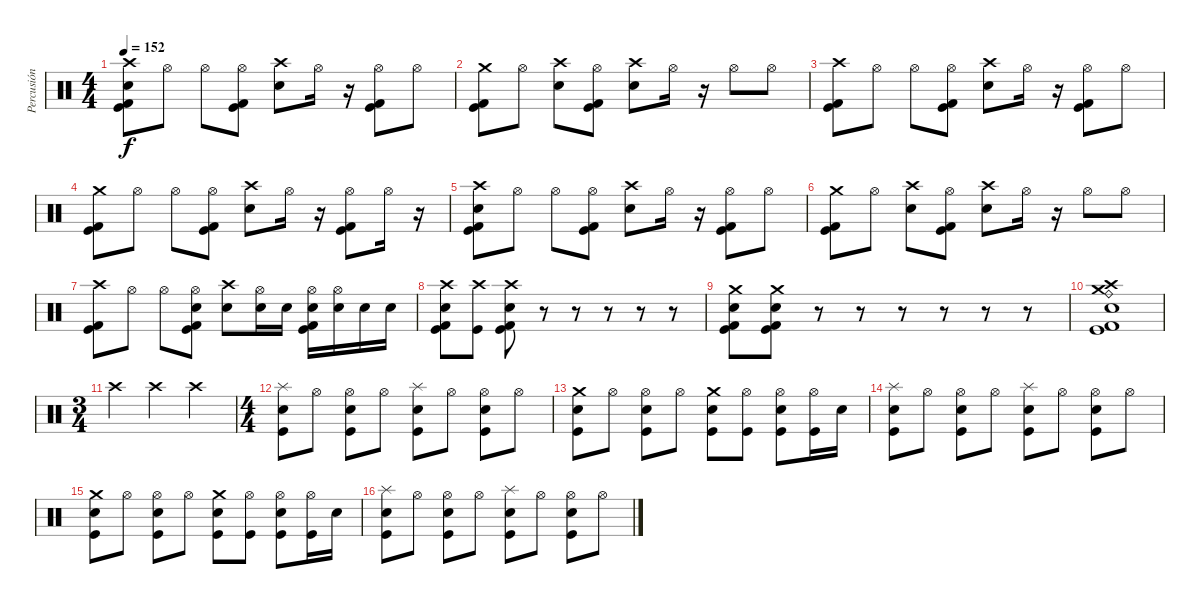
\track ("Percusión" "Percusión") {instrument percussion}
\staff {score}
\articulation defaults
\ts (4 4)
\tempo 152
\clef neutral
\ks c
("Crash high (hit)" "Electric Snare (hit)" "Kick (hit) 2" "Kick (hit)").8{dy f} "Hi-Hat (open)".8 "Hi-Hat (open)".8 ("Hi-Hat (open)" "Kick (hit) 2" "Kick (hit)").8 ("Crash high (hit)" "Electric Snare (hit)").8 "Hi-Hat (open)".16 r.16 ("Hi-Hat (open)" "Kick (hit) 2" "Kick (hit)").8 "Hi-Hat (open)".8 |
("Crash medium (hit)" "Kick (hit) 2" "Kick (hit)").8 "Hi-Hat (open)".8 ("Crash high (hit)" "Electric Snare (hit)").8 ("Hi-Hat (open)" "Kick (hit) 2" "Kick (hit)").8 ("Crash high (hit)" "Electric Snare (hit)").8 "Hi-Hat (open)".16 r.16 "Hi-Hat (open)".8 "Hi-Hat (open)".8 |
("Crash high (hit)" "Kick (hit) 2" "Kick (hit)").8 "Hi-Hat (open)".8 "Hi-Hat (open)".8 ("Hi-Hat (open)" "Kick (hit) 2" "Kick (hit)").8 ("Crash high (hit)" "Electric Snare (hit)").8 "Hi-Hat (open)".16 r.16 ("Hi-Hat (open)" "Kick (hit) 2" "Kick (hit)").8 "Hi-Hat (open)".8 |
("Crash medium (hit)" "Kick (hit) 2" "Kick (hit)").8 "Hi-Hat (open)".8 "Hi-Hat (open)".8 ("Hi-Hat (open)" "Kick (hit) 2" "Kick (hit)").8 ("Crash high (hit)" "Electric Snare (hit)").8 "Hi-Hat (open)".16 r.16 ("Hi-Hat (open)" "Kick (hit) 2" "Kick (hit)").8 "Hi-Hat (open)".16 r.16 |
("Crash high (hit)" "Electric Snare (hit)" "Kick (hit) 2" "Kick (hit)").8 "Hi-Hat (open)".8 "Hi-Hat (open)".8 ("Hi-Hat (open)" "Kick (hit) 2" "Kick (hit)").8 ("Crash high (hit)" "Electric Snare (hit)").8 "Hi-Hat (open)".16 r.16 ("Hi-Hat (open)" "Kick (hit) 2" "Kick (hit)").8 "Hi-Hat (open)".8 |
("Crash medium (hit)" "Kick (hit) 2" "Kick (hit)").8 "Hi-Hat (open)".8 ("Crash high (hit)" "Electric Snare (hit)").8 ("Hi-Hat (open)" "Kick (hit) 2" "Kick (hit)").8 ("Crash high (hit)" "Electric Snare (hit)").8 "Hi-Hat (open)".16 r.16 "Hi-Hat (open)".8 "Hi-Hat (open)".8 |
("Crash high (hit)" "Kick (hit) 2" "Kick (hit)").8 "Hi-Hat (open)".8 "Hi-Hat (open)".8 ("Hi-Hat (open)" "Electric Snare (hit)" "Kick (hit) 2" "Kick (hit)").8 ("Crash high (hit)" "Electric Snare (hit)").8 ("Hi-Hat (open)" "Electric Snare (hit)").16 "Electric Snare (hit)".16 ("Hi-Hat (open)" "Electric Snare (hit)" "Kick (hit) 2" "Kick (hit)").16 ("Hi-Hat (open)" "Electric Snare (hit)").16 "Electric Snare (hit)".16 "Electric Snare (hit)".16 |
("Electric Snare (hit)" "Crash high (hit)" "Kick (hit) 2" "Kick (hit)").8 ("Crash high (hit)" "Kick (hit)").8 ("Electric Snare (hit)" "Crash high (hit)" "Kick (hit) 2" "Kick (hit)").8 r.8 r.8 r.8 r.8 r.8 |
("Electric Snare (hit)" "Crash medium (hit)" "Kick (hit) 2" "Kick (hit)").8 ("Electric Snare (hit)" "Crash medium (hit)" "Kick (hit) 2" "Kick (hit)").8 r.8 r.8 r.8 r.8 r.8 r.8 |
("Electric Snare (hit)" "Crash high (hit)" "Crash medium (hit)" "Kick (hit)" "Kick (hit) 2" "Ride (bell)").1 |
\ts (3 4)
"Crash high (hit)".4 "Crash high (hit)".4 "Crash high (hit)".4 |
\ts (4 4)
("Splash (hit)" "Electric Snare (hit)" "Kick (hit)").8 "Hi-Hat (open)".8 ("Hi-Hat (open)" "Electric Snare (hit)" "Kick (hit)").8 "Hi-Hat (open)".8 ("Splash (hit)" "Electric Snare (hit)" "Kick (hit)").8 "Hi-Hat (open)".8 ("Hi-Hat (open)" "Electric Snare (hit)" "Kick (hit)").8 "Hi-Hat (open)".8 |
("Crash medium (hit)" "Electric Snare (hit)" "Kick (hit)").8 "Hi-Hat (open)".8 ("Hi-Hat (open)" "Electric Snare (hit)" "Kick (hit)").8 "Hi-Hat (open)".8 ("Crash medium (hit)" "Electric Snare (hit)" "Kick (hit)").8 ("Hi-Hat (open)" "Kick (hit)").8 ("Hi-Hat (open)" "Electric Snare (hit)" "Kick (hit)").8 ("Hi-Hat (open)" "Kick (hit)").16 "Electric Snare (hit)".16 |
("Splash (hit)" "Electric Snare (hit)" "Kick (hit)").8 "Hi-Hat (open)".8 ("Hi-Hat (open)" "Electric Snare (hit)" "Kick (hit)").8 "Hi-Hat (open)".8 ("Splash (hit)" "Electric Snare (hit)" "Kick (hit)").8 "Hi-Hat (open)".8 ("Hi-Hat (open)" "Electric Snare (hit)" "Kick (hit)").8 "Hi-Hat (open)".8 |
("Crash medium (hit)" "Electric Snare (hit)" "Kick (hit)").8 "Hi-Hat (open)".8 ("Hi-Hat (open)" "Electric Snare (hit)" "Kick (hit)").8 "Hi-Hat (open)".8 ("Crash medium (hit)" "Electric Snare (hit)" "Kick (hit)").8 ("Hi-Hat (open)" "Kick (hit)").8 ("Hi-Hat (open)" "Electric Snare (hit)" "Kick (hit)").8 ("Hi-Hat (open)" "Kick (hit)").16 "Electric Snare (hit)".16 |
("Splash (hit)" "Electric Snare (hit)" "Kick (hit)").8 "Hi-Hat (open)".8 ("Hi-Hat (open)" "Electric Snare (hit)" "Kick (hit)").8 "Hi-Hat (open)".8 ("Splash (hit)" "Electric Snare (hit)" "Kick (hit)").8 "Hi-Hat (open)".8 ("Hi-Hat (open)" "Electric Snare (hit)" "Kick (hit)").8 "Hi-Hat (open)".8
